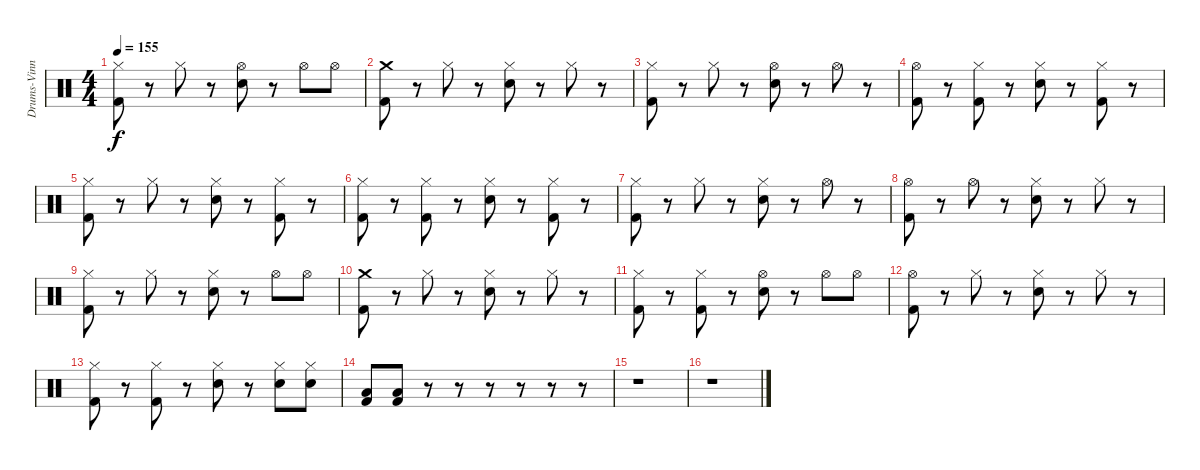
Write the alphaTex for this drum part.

\track ("Drums-Vinny Appice" "Drums-Vinn") {instrument percussion}
\staff {score}
\articulation defaults
\ts (4 4)
\tempo 155
\clef neutral
\ks c
("Hi-Hat (closed)" "Kick (hit) 2").8{dy f} r.8 "Hi-Hat (closed)".8 r.8 ("Hi-Hat (open)" "Electric Snare (hit)").8 r.8 "Hi-Hat (open)".8 "Hi-Hat (open)".8 |
("Crash medium (hit)" "Kick (hit) 2").8 r.8 "Hi-Hat (closed)".8 r.8 ("Hi-Hat (closed)" "Electric Snare (hit)").8 r.8 "Hi-Hat (closed)".8 r.8 |
("Hi-Hat (closed)" "Kick (hit) 2").8 r.8 "Hi-Hat (closed)".8 r.8 ("Hi-Hat (open)" "Electric Snare (hit)").8 r.8 "Hi-Hat (open)".8 r.8 |
("Hi-Hat (open)" "Kick (hit) 2").8 r.8 ("Hi-Hat (closed)" "Kick (hit) 2").8 r.8 ("Hi-Hat (closed)" "Electric Snare (hit)").8 r.8 ("Hi-Hat (closed)" "Kick (hit) 2").8 r.8 |
("Hi-Hat (closed)" "Kick (hit) 2").8 r.8 "Hi-Hat (closed)".8 r.8 ("Hi-Hat (closed)" "Electric Snare (hit)").8 r.8 ("Hi-Hat (closed)" "Kick (hit) 2").8 r.8 |
("Hi-Hat (closed)" "Kick (hit) 2").8 r.8 ("Hi-Hat (closed)" "Kick (hit) 2").8 r.8 ("Hi-Hat (closed)" "Electric Snare (hit)").8 r.8 ("Hi-Hat (closed)" "Kick (hit) 2").8 r.8 |
("Hi-Hat (closed)" "Kick (hit) 2").8 r.8 "Hi-Hat (closed)".8 r.8 ("Hi-Hat (closed)" "Electric Snare (hit)").8 r.8 "Hi-Hat (open)".8 r.8 |
("Hi-Hat (open)" "Kick (hit) 2").8 r.8 "Hi-Hat (open)".8 r.8 ("Hi-Hat (closed)" "Electric Snare (hit)").8 r.8 "Hi-Hat (closed)".8 r.8 |
("Hi-Hat (closed)" "Kick (hit) 2").8 r.8 "Hi-Hat (closed)".8 r.8 ("Hi-Hat (closed)" "Electric Snare (hit)").8 r.8 "Hi-Hat (open)".8 "Hi-Hat (open)".8 |
("Crash medium (hit)" "Kick (hit) 2").8 r.8 "Hi-Hat (closed)".8 r.8 ("Hi-Hat (closed)" "Electric Snare (hit)").8 r.8 "Hi-Hat (closed)".8 r.8 |
("Hi-Hat (closed)" "Kick (hit) 2").8 r.8 ("Hi-Hat (closed)" "Kick (hit) 2").8 r.8 ("Hi-Hat (open)" "Electric Snare (hit)").8 r.8 "Hi-Hat (open)".8 "Hi-Hat (open)".8 |
("Hi-Hat (open)" "Kick (hit) 2").8 r.8 "Hi-Hat (closed)".8 r.8 ("Hi-Hat (closed)" "Electric Snare (hit)").8 r.8 "Hi-Hat (closed)".8 r.8 |
("Hi-Hat (closed)" "Kick (hit) 2").8 r.8 ("Hi-Hat (closed)" "Kick (hit) 2").8 r.8 ("Hi-Hat (closed)" "Electric Snare (hit)").8 r.8 ("Hi-Hat (closed)" "Electric Snare (hit)").8 ("Hi-Hat (closed)" "Electric Snare (hit)").8 |
("Low Floor Tom (hit)" "Kick (hit) 2").8 ("Low Floor Tom (hit)" "Kick (hit) 2").8 r.8 r.8 r.8 r.8 r.8 r.8 |
r.1 |
r.1
